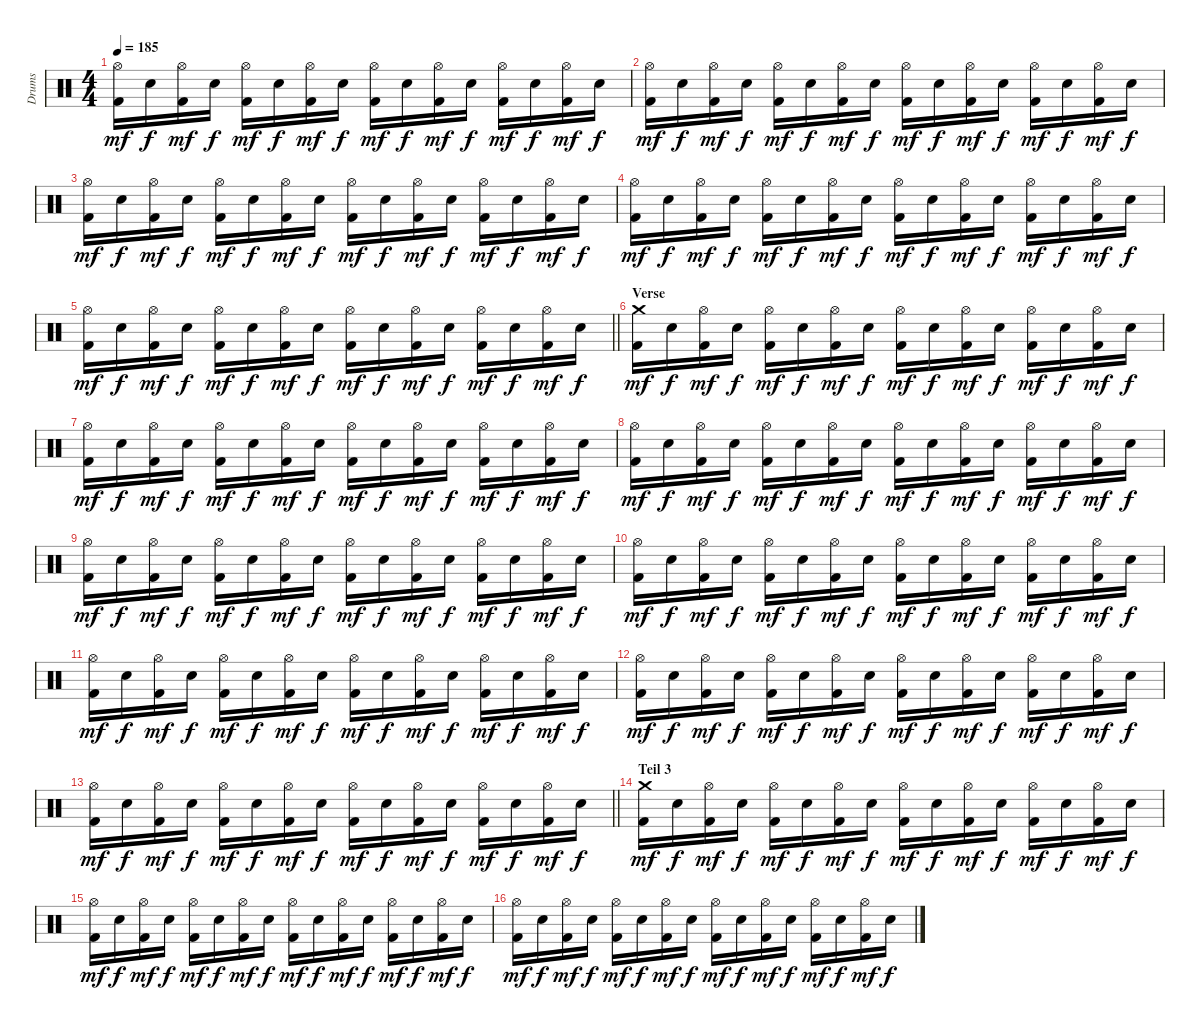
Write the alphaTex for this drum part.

\track ("Drums" "Drums") {instrument percussion}
\staff {score}
\articulation defaults
\ts (4 4)
\tempo 185
\clef neutral
\ks c
("Hi-Hat (open)" "Kick (hit) 2").16{dy mf} "Electric Snare (hit)".16{dy f} ("Hi-Hat (open)" "Kick (hit) 2").16{dy mf} "Electric Snare (hit)".16{dy f} ("Hi-Hat (open)" "Kick (hit) 2").16{dy mf} "Electric Snare (hit)".16{dy f} ("Hi-Hat (open)" "Kick (hit) 2").16{dy mf} "Electric Snare (hit)".16{dy f} ("Hi-Hat (open)" "Kick (hit) 2").16{dy mf} "Electric Snare (hit)".16{dy f} ("Hi-Hat (open)" "Kick (hit) 2").16{dy mf} "Electric Snare (hit)".16{dy f} ("Hi-Hat (open)" "Kick (hit) 2").16{dy mf} "Electric Snare (hit)".16{dy f} ("Hi-Hat (open)" "Kick (hit) 2").16{dy mf} "Electric Snare (hit)".16{dy f} |
("Hi-Hat (open)" "Kick (hit) 2").16{dy mf} "Electric Snare (hit)".16{dy f} ("Hi-Hat (open)" "Kick (hit) 2").16{dy mf} "Electric Snare (hit)".16{dy f} ("Hi-Hat (open)" "Kick (hit) 2").16{dy mf} "Electric Snare (hit)".16{dy f} ("Hi-Hat (open)" "Kick (hit) 2").16{dy mf} "Electric Snare (hit)".16{dy f} ("Hi-Hat (open)" "Kick (hit) 2").16{dy mf} "Electric Snare (hit)".16{dy f} ("Hi-Hat (open)" "Kick (hit) 2").16{dy mf} "Electric Snare (hit)".16{dy f} ("Hi-Hat (open)" "Kick (hit) 2").16{dy mf} "Electric Snare (hit)".16{dy f} ("Hi-Hat (open)" "Kick (hit) 2").16{dy mf} "Electric Snare (hit)".16{dy f} |
("Hi-Hat (open)" "Kick (hit) 2").16{dy mf} "Electric Snare (hit)".16{dy f} ("Hi-Hat (open)" "Kick (hit) 2").16{dy mf} "Electric Snare (hit)".16{dy f} ("Hi-Hat (open)" "Kick (hit) 2").16{dy mf} "Electric Snare (hit)".16{dy f} ("Hi-Hat (open)" "Kick (hit) 2").16{dy mf} "Electric Snare (hit)".16{dy f} ("Hi-Hat (open)" "Kick (hit) 2").16{dy mf} "Electric Snare (hit)".16{dy f} ("Hi-Hat (open)" "Kick (hit) 2").16{dy mf} "Electric Snare (hit)".16{dy f} ("Hi-Hat (open)" "Kick (hit) 2").16{dy mf} "Electric Snare (hit)".16{dy f} ("Hi-Hat (open)" "Kick (hit) 2").16{dy mf} "Electric Snare (hit)".16{dy f} |
("Hi-Hat (open)" "Kick (hit) 2").16{dy mf} "Electric Snare (hit)".16{dy f} ("Hi-Hat (open)" "Kick (hit) 2").16{dy mf} "Electric Snare (hit)".16{dy f} ("Hi-Hat (open)" "Kick (hit) 2").16{dy mf} "Electric Snare (hit)".16{dy f} ("Hi-Hat (open)" "Kick (hit) 2").16{dy mf} "Electric Snare (hit)".16{dy f} ("Hi-Hat (open)" "Kick (hit) 2").16{dy mf} "Electric Snare (hit)".16{dy f} ("Hi-Hat (open)" "Kick (hit) 2").16{dy mf} "Electric Snare (hit)".16{dy f} ("Hi-Hat (open)" "Kick (hit) 2").16{dy mf} "Electric Snare (hit)".16{dy f} ("Hi-Hat (open)" "Kick (hit) 2").16{dy mf} "Electric Snare (hit)".16{dy f} |
\barLineRight lightlight
("Hi-Hat (open)" "Kick (hit) 2").16{dy mf} "Electric Snare (hit)".16{dy f} ("Hi-Hat (open)" "Kick (hit) 2").16{dy mf} "Electric Snare (hit)".16{dy f} ("Hi-Hat (open)" "Kick (hit) 2").16{dy mf} "Electric Snare (hit)".16{dy f} ("Hi-Hat (open)" "Kick (hit) 2").16{dy mf} "Electric Snare (hit)".16{dy f} ("Hi-Hat (open)" "Kick (hit) 2").16{dy mf} "Electric Snare (hit)".16{dy f} ("Hi-Hat (open)" "Kick (hit) 2").16{dy mf} "Electric Snare (hit)".16{dy f} ("Hi-Hat (open)" "Kick (hit) 2").16{dy mf} "Electric Snare (hit)".16{dy f} ("Hi-Hat (open)" "Kick (hit) 2").16{dy mf} "Electric Snare (hit)".16{dy f} |
\section ("" "Verse")
("Crash medium (hit)" "Kick (hit) 2").16{dy mf} "Electric Snare (hit)".16{dy f} ("Hi-Hat (open)" "Kick (hit) 2").16{dy mf} "Electric Snare (hit)".16{dy f} ("Hi-Hat (open)" "Kick (hit) 2").16{dy mf} "Electric Snare (hit)".16{dy f} ("Hi-Hat (open)" "Kick (hit) 2").16{dy mf} "Electric Snare (hit)".16{dy f} ("Hi-Hat (open)" "Kick (hit) 2").16{dy mf} "Electric Snare (hit)".16{dy f} ("Hi-Hat (open)" "Kick (hit) 2").16{dy mf} "Electric Snare (hit)".16{dy f} ("Hi-Hat (open)" "Kick (hit) 2").16{dy mf} "Electric Snare (hit)".16{dy f} ("Hi-Hat (open)" "Kick (hit) 2").16{dy mf} "Electric Snare (hit)".16{dy f} |
("Hi-Hat (open)" "Kick (hit) 2").16{dy mf} "Electric Snare (hit)".16{dy f} ("Hi-Hat (open)" "Kick (hit) 2").16{dy mf} "Electric Snare (hit)".16{dy f} ("Hi-Hat (open)" "Kick (hit) 2").16{dy mf} "Electric Snare (hit)".16{dy f} ("Hi-Hat (open)" "Kick (hit) 2").16{dy mf} "Electric Snare (hit)".16{dy f} ("Hi-Hat (open)" "Kick (hit) 2").16{dy mf} "Electric Snare (hit)".16{dy f} ("Hi-Hat (open)" "Kick (hit) 2").16{dy mf} "Electric Snare (hit)".16{dy f} ("Hi-Hat (open)" "Kick (hit) 2").16{dy mf} "Electric Snare (hit)".16{dy f} ("Hi-Hat (open)" "Kick (hit) 2").16{dy mf} "Electric Snare (hit)".16{dy f} |
("Hi-Hat (open)" "Kick (hit) 2").16{dy mf} "Electric Snare (hit)".16{dy f} ("Hi-Hat (open)" "Kick (hit) 2").16{dy mf} "Electric Snare (hit)".16{dy f} ("Hi-Hat (open)" "Kick (hit) 2").16{dy mf} "Electric Snare (hit)".16{dy f} ("Hi-Hat (open)" "Kick (hit) 2").16{dy mf} "Electric Snare (hit)".16{dy f} ("Hi-Hat (open)" "Kick (hit) 2").16{dy mf} "Electric Snare (hit)".16{dy f} ("Hi-Hat (open)" "Kick (hit) 2").16{dy mf} "Electric Snare (hit)".16{dy f} ("Hi-Hat (open)" "Kick (hit) 2").16{dy mf} "Electric Snare (hit)".16{dy f} ("Hi-Hat (open)" "Kick (hit) 2").16{dy mf} "Electric Snare (hit)".16{dy f} |
("Hi-Hat (open)" "Kick (hit) 2").16{dy mf} "Electric Snare (hit)".16{dy f} ("Hi-Hat (open)" "Kick (hit) 2").16{dy mf} "Electric Snare (hit)".16{dy f} ("Hi-Hat (open)" "Kick (hit) 2").16{dy mf} "Electric Snare (hit)".16{dy f} ("Hi-Hat (open)" "Kick (hit) 2").16{dy mf} "Electric Snare (hit)".16{dy f} ("Hi-Hat (open)" "Kick (hit) 2").16{dy mf} "Electric Snare (hit)".16{dy f} ("Hi-Hat (open)" "Kick (hit) 2").16{dy mf} "Electric Snare (hit)".16{dy f} ("Hi-Hat (open)" "Kick (hit) 2").16{dy mf} "Electric Snare (hit)".16{dy f} ("Hi-Hat (open)" "Kick (hit) 2").16{dy mf} "Electric Snare (hit)".16{dy f} |
("Hi-Hat (open)" "Kick (hit) 2").16{dy mf} "Electric Snare (hit)".16{dy f} ("Hi-Hat (open)" "Kick (hit) 2").16{dy mf} "Electric Snare (hit)".16{dy f} ("Hi-Hat (open)" "Kick (hit) 2").16{dy mf} "Electric Snare (hit)".16{dy f} ("Hi-Hat (open)" "Kick (hit) 2").16{dy mf} "Electric Snare (hit)".16{dy f} ("Hi-Hat (open)" "Kick (hit) 2").16{dy mf} "Electric Snare (hit)".16{dy f} ("Hi-Hat (open)" "Kick (hit) 2").16{dy mf} "Electric Snare (hit)".16{dy f} ("Hi-Hat (open)" "Kick (hit) 2").16{dy mf} "Electric Snare (hit)".16{dy f} ("Hi-Hat (open)" "Kick (hit) 2").16{dy mf} "Electric Snare (hit)".16{dy f} |
("Hi-Hat (open)" "Kick (hit) 2").16{dy mf} "Electric Snare (hit)".16{dy f} ("Hi-Hat (open)" "Kick (hit) 2").16{dy mf} "Electric Snare (hit)".16{dy f} ("Hi-Hat (open)" "Kick (hit) 2").16{dy mf} "Electric Snare (hit)".16{dy f} ("Hi-Hat (open)" "Kick (hit) 2").16{dy mf} "Electric Snare (hit)".16{dy f} ("Hi-Hat (open)" "Kick (hit) 2").16{dy mf} "Electric Snare (hit)".16{dy f} ("Hi-Hat (open)" "Kick (hit) 2").16{dy mf} "Electric Snare (hit)".16{dy f} ("Hi-Hat (open)" "Kick (hit) 2").16{dy mf} "Electric Snare (hit)".16{dy f} ("Hi-Hat (open)" "Kick (hit) 2").16{dy mf} "Electric Snare (hit)".16{dy f} |
("Hi-Hat (open)" "Kick (hit) 2").16{dy mf} "Electric Snare (hit)".16{dy f} ("Hi-Hat (open)" "Kick (hit) 2").16{dy mf} "Electric Snare (hit)".16{dy f} ("Hi-Hat (open)" "Kick (hit) 2").16{dy mf} "Electric Snare (hit)".16{dy f} ("Hi-Hat (open)" "Kick (hit) 2").16{dy mf} "Electric Snare (hit)".16{dy f} ("Hi-Hat (open)" "Kick (hit) 2").16{dy mf} "Electric Snare (hit)".16{dy f} ("Hi-Hat (open)" "Kick (hit) 2").16{dy mf} "Electric Snare (hit)".16{dy f} ("Hi-Hat (open)" "Kick (hit) 2").16{dy mf} "Electric Snare (hit)".16{dy f} ("Hi-Hat (open)" "Kick (hit) 2").16{dy mf} "Electric Snare (hit)".16{dy f} |
\barLineRight lightlight
("Hi-Hat (open)" "Kick (hit) 2").16{dy mf} "Electric Snare (hit)".16{dy f} ("Hi-Hat (open)" "Kick (hit) 2").16{dy mf} "Electric Snare (hit)".16{dy f} ("Hi-Hat (open)" "Kick (hit) 2").16{dy mf} "Electric Snare (hit)".16{dy f} ("Hi-Hat (open)" "Kick (hit) 2").16{dy mf} "Electric Snare (hit)".16{dy f} ("Hi-Hat (open)" "Kick (hit) 2").16{dy mf} "Electric Snare (hit)".16{dy f} ("Hi-Hat (open)" "Kick (hit) 2").16{dy mf} "Electric Snare (hit)".16{dy f} ("Hi-Hat (open)" "Kick (hit) 2").16{dy mf} "Electric Snare (hit)".16{dy f} ("Hi-Hat (open)" "Kick (hit) 2").16{dy mf} "Electric Snare (hit)".16{dy f} |
\section ("" "Teil 3")
("Crash medium (hit)" "Kick (hit) 2").16{dy mf} "Electric Snare (hit)".16{dy f} ("Hi-Hat (open)" "Kick (hit) 2").16{dy mf} "Electric Snare (hit)".16{dy f} ("Hi-Hat (open)" "Kick (hit) 2").16{dy mf} "Electric Snare (hit)".16{dy f} ("Hi-Hat (open)" "Kick (hit) 2").16{dy mf} "Electric Snare (hit)".16{dy f} ("Hi-Hat (open)" "Kick (hit) 2").16{dy mf} "Electric Snare (hit)".16{dy f} ("Hi-Hat (open)" "Kick (hit) 2").16{dy mf} "Electric Snare (hit)".16{dy f} ("Hi-Hat (open)" "Kick (hit) 2").16{dy mf} "Electric Snare (hit)".16{dy f} ("Hi-Hat (open)" "Kick (hit) 2").16{dy mf} "Electric Snare (hit)".16{dy f} |
("Hi-Hat (open)" "Kick (hit) 2").16{dy mf} "Electric Snare (hit)".16{dy f} ("Hi-Hat (open)" "Kick (hit) 2").16{dy mf} "Electric Snare (hit)".16{dy f} ("Hi-Hat (open)" "Kick (hit) 2").16{dy mf} "Electric Snare (hit)".16{dy f} ("Hi-Hat (open)" "Kick (hit) 2").16{dy mf} "Electric Snare (hit)".16{dy f} ("Hi-Hat (open)" "Kick (hit) 2").16{dy mf} "Electric Snare (hit)".16{dy f} ("Hi-Hat (open)" "Kick (hit) 2").16{dy mf} "Electric Snare (hit)".16{dy f} ("Hi-Hat (open)" "Kick (hit) 2").16{dy mf} "Electric Snare (hit)".16{dy f} ("Hi-Hat (open)" "Kick (hit) 2").16{dy mf} "Electric Snare (hit)".16{dy f} |
("Hi-Hat (open)" "Kick (hit) 2").16{dy mf} "Electric Snare (hit)".16{dy f} ("Hi-Hat (open)" "Kick (hit) 2").16{dy mf} "Electric Snare (hit)".16{dy f} ("Hi-Hat (open)" "Kick (hit) 2").16{dy mf} "Electric Snare (hit)".16{dy f} ("Hi-Hat (open)" "Kick (hit) 2").16{dy mf} "Electric Snare (hit)".16{dy f} ("Hi-Hat (open)" "Kick (hit) 2").16{dy mf} "Electric Snare (hit)".16{dy f} ("Hi-Hat (open)" "Kick (hit) 2").16{dy mf} "Electric Snare (hit)".16{dy f} ("Hi-Hat (open)" "Kick (hit) 2").16{dy mf} "Electric Snare (hit)".16{dy f} ("Hi-Hat (open)" "Kick (hit) 2").16{dy mf} "Electric Snare (hit)".16{dy f}
